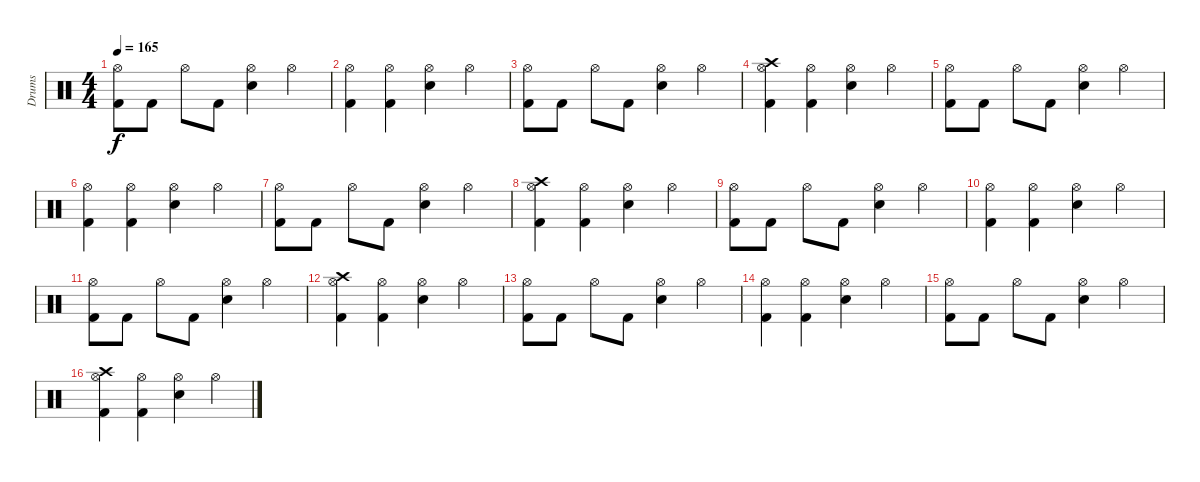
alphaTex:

\track ("Drums" "Drums") {instrument percussion}
\staff {score}
\articulation defaults
\ts (4 4)
\tempo 165
\clef neutral
\ks c
("Hi-Hat (open)" "Kick (hit) 2").8{dy f} "Kick (hit) 2".8 "Hi-Hat (open)".8 "Kick (hit) 2".8 ("Hi-Hat (open)" "Snare (hit) 2").4 "Hi-Hat (open)".4 |
("Hi-Hat (open)" "Kick (hit) 2").4 ("Hi-Hat (open)" "Kick (hit) 2").4 ("Hi-Hat (open)" "Snare (hit) 2").4 "Hi-Hat (open)".4 |
("Hi-Hat (open)" "Kick (hit) 2").8 "Kick (hit) 2".8 "Hi-Hat (open)".8 "Kick (hit) 2".8 ("Hi-Hat (open)" "Snare (hit) 2").4 "Hi-Hat (open)".4 |
("Crash high (hit)" "Hi-Hat (open)" "Kick (hit) 2").4 ("Hi-Hat (open)" "Kick (hit) 2").4 ("Hi-Hat (open)" "Snare (hit) 2").4 "Hi-Hat (open)".4 |
("Hi-Hat (open)" "Kick (hit) 2").8 "Kick (hit) 2".8 "Hi-Hat (open)".8 "Kick (hit) 2".8 ("Hi-Hat (open)" "Snare (hit) 2").4 "Hi-Hat (open)".4 |
("Hi-Hat (open)" "Kick (hit) 2").4 ("Hi-Hat (open)" "Kick (hit) 2").4 ("Hi-Hat (open)" "Snare (hit) 2").4 "Hi-Hat (open)".4 |
("Hi-Hat (open)" "Kick (hit) 2").8 "Kick (hit) 2".8 "Hi-Hat (open)".8 "Kick (hit) 2".8 ("Hi-Hat (open)" "Snare (hit) 2").4 "Hi-Hat (open)".4 |
("Crash high (hit)" "Hi-Hat (open)" "Kick (hit) 2").4 ("Hi-Hat (open)" "Kick (hit) 2").4 ("Hi-Hat (open)" "Snare (hit) 2").4 "Hi-Hat (open)".4 |
("Hi-Hat (open)" "Kick (hit) 2").8 "Kick (hit) 2".8 "Hi-Hat (open)".8 "Kick (hit) 2".8 ("Hi-Hat (open)" "Snare (hit) 2").4 "Hi-Hat (open)".4 |
("Hi-Hat (open)" "Kick (hit) 2").4 ("Hi-Hat (open)" "Kick (hit) 2").4 ("Hi-Hat (open)" "Snare (hit) 2").4 "Hi-Hat (open)".4 |
("Hi-Hat (open)" "Kick (hit) 2").8 "Kick (hit) 2".8 "Hi-Hat (open)".8 "Kick (hit) 2".8 ("Hi-Hat (open)" "Snare (hit) 2").4 "Hi-Hat (open)".4 |
("Crash high (hit)" "Hi-Hat (open)" "Kick (hit) 2").4 ("Hi-Hat (open)" "Kick (hit) 2").4 ("Hi-Hat (open)" "Snare (hit) 2").4 "Hi-Hat (open)".4 |
("Hi-Hat (open)" "Kick (hit) 2").8 "Kick (hit) 2".8 "Hi-Hat (open)".8 "Kick (hit) 2".8 ("Hi-Hat (open)" "Snare (hit) 2").4 "Hi-Hat (open)".4 |
("Hi-Hat (open)" "Kick (hit) 2").4 ("Hi-Hat (open)" "Kick (hit) 2").4 ("Hi-Hat (open)" "Snare (hit) 2").4 "Hi-Hat (open)".4 |
("Hi-Hat (open)" "Kick (hit) 2").8 "Kick (hit) 2".8 "Hi-Hat (open)".8 "Kick (hit) 2".8 ("Hi-Hat (open)" "Snare (hit) 2").4 "Hi-Hat (open)".4 |
("Crash high (hit)" "Hi-Hat (open)" "Kick (hit) 2").4 ("Hi-Hat (open)" "Kick (hit) 2").4 ("Hi-Hat (open)" "Snare (hit) 2").4 "Hi-Hat (open)".4
